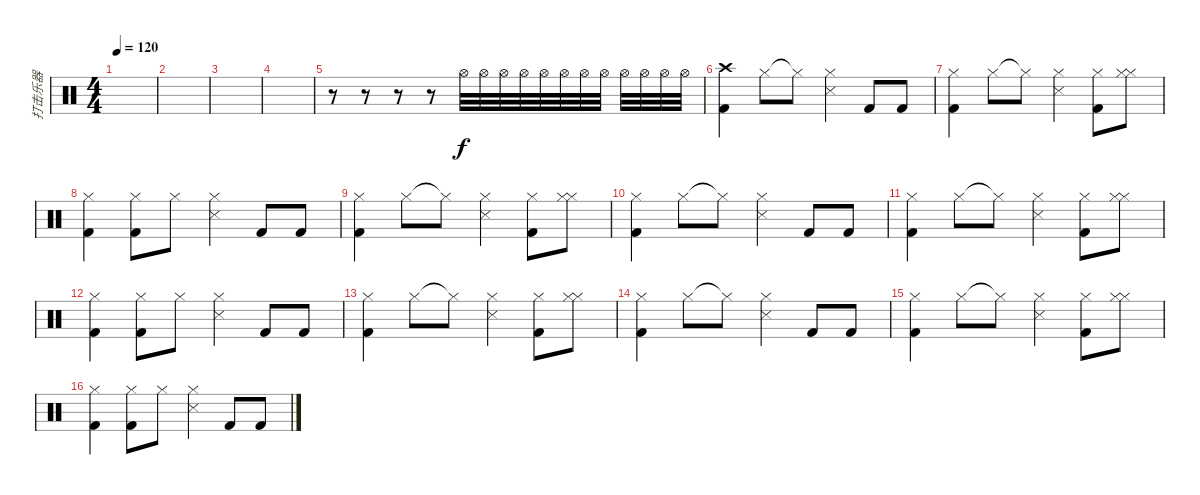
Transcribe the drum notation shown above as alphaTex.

\track ("打击乐器" "打击乐器") {instrument percussion}
\staff {score}
\articulation defaults
\ts (4 4)
\tempo 120
\clef neutral
\ks c
|
|
|
|
r.8 r.8 r.8 r.8 "Hi-Hat (open)".32 "Hi-Hat (open)".32 "Hi-Hat (open)".32 "Hi-Hat (open)".32 "Hi-Hat (open)".32 "Hi-Hat (open)".32 "Hi-Hat (open)".32 "Hi-Hat (open)".32 "Hi-Hat (open)".32 "Hi-Hat (open)".32 "Hi-Hat (open)".32 "Hi-Hat (open)".32 |
("Crash high (hit)" "Kick (hit) 2").4 "Hi-Hat (closed)".8 "Hi-Hat (closed)"{t}.8 ("Snare (side stick) 3" "Hi-Hat (closed)").4 "Kick (hit) 2".8 "Kick (hit) 2".8 |
("Hi-Hat (closed)" "Kick (hit) 2").4 "Hi-Hat (closed)".8 "Hi-Hat (closed)"{t}.8 ("Snare (side stick) 3" "Hi-Hat (closed)").4 ("Hi-Hat (closed)" "Kick (hit) 2").8 ("Hi-Hat (closed)" "Hi-Hat (closed)").8 |
("Kick (hit) 2" "Hi-Hat (closed)").4 ("Kick (hit) 2" "Hi-Hat (closed)").8 "Hi-Hat (closed)".8 ("Snare (side stick) 3" "Hi-Hat (closed)").4 "Kick (hit) 2".8 "Kick (hit) 2".8 |
("Hi-Hat (closed)" "Kick (hit) 2").4 "Hi-Hat (closed)".8 "Hi-Hat (closed)"{t}.8 ("Snare (side stick) 3" "Hi-Hat (closed)").4 ("Hi-Hat (closed)" "Kick (hit) 2").8 ("Hi-Hat (closed)" "Hi-Hat (closed)").8 |
("Hi-Hat (closed)" "Kick (hit) 2").4 "Hi-Hat (closed)".8 "Hi-Hat (closed)"{t}.8 ("Snare (side stick) 3" "Hi-Hat (closed)").4 "Kick (hit) 2".8 "Kick (hit) 2".8 |
("Hi-Hat (closed)" "Kick (hit) 2").4 "Hi-Hat (closed)".8 "Hi-Hat (closed)"{t}.8 ("Snare (side stick) 3" "Hi-Hat (closed)").4 ("Hi-Hat (closed)" "Kick (hit) 2").8 ("Hi-Hat (closed)" "Hi-Hat (closed)").8 |
("Kick (hit) 2" "Hi-Hat (closed)").4 ("Kick (hit) 2" "Hi-Hat (closed)").8 "Hi-Hat (closed)".8 ("Snare (side stick) 3" "Hi-Hat (closed)").4 "Kick (hit) 2".8 "Kick (hit) 2".8 |
("Hi-Hat (closed)" "Kick (hit) 2").4 "Hi-Hat (closed)".8 "Hi-Hat (closed)"{t}.8 ("Snare (side stick) 3" "Hi-Hat (closed)").4 ("Hi-Hat (closed)" "Kick (hit) 2").8 ("Hi-Hat (closed)" "Hi-Hat (closed)").8 |
("Hi-Hat (closed)" "Kick (hit) 2").4 "Hi-Hat (closed)".8 "Hi-Hat (closed)"{t}.8 ("Snare (side stick) 3" "Hi-Hat (closed)").4 "Kick (hit) 2".8 "Kick (hit) 2".8 |
("Hi-Hat (closed)" "Kick (hit) 2").4 "Hi-Hat (closed)".8 "Hi-Hat (closed)"{t}.8 ("Snare (side stick) 3" "Hi-Hat (closed)").4 ("Hi-Hat (closed)" "Kick (hit) 2").8 ("Hi-Hat (closed)" "Hi-Hat (closed)").8 |
("Kick (hit) 2" "Hi-Hat (closed)").4 ("Kick (hit) 2" "Hi-Hat (closed)").8 "Hi-Hat (closed)".8 ("Snare (side stick) 3" "Hi-Hat (closed)").4 "Kick (hit) 2".8 "Kick (hit) 2".8
